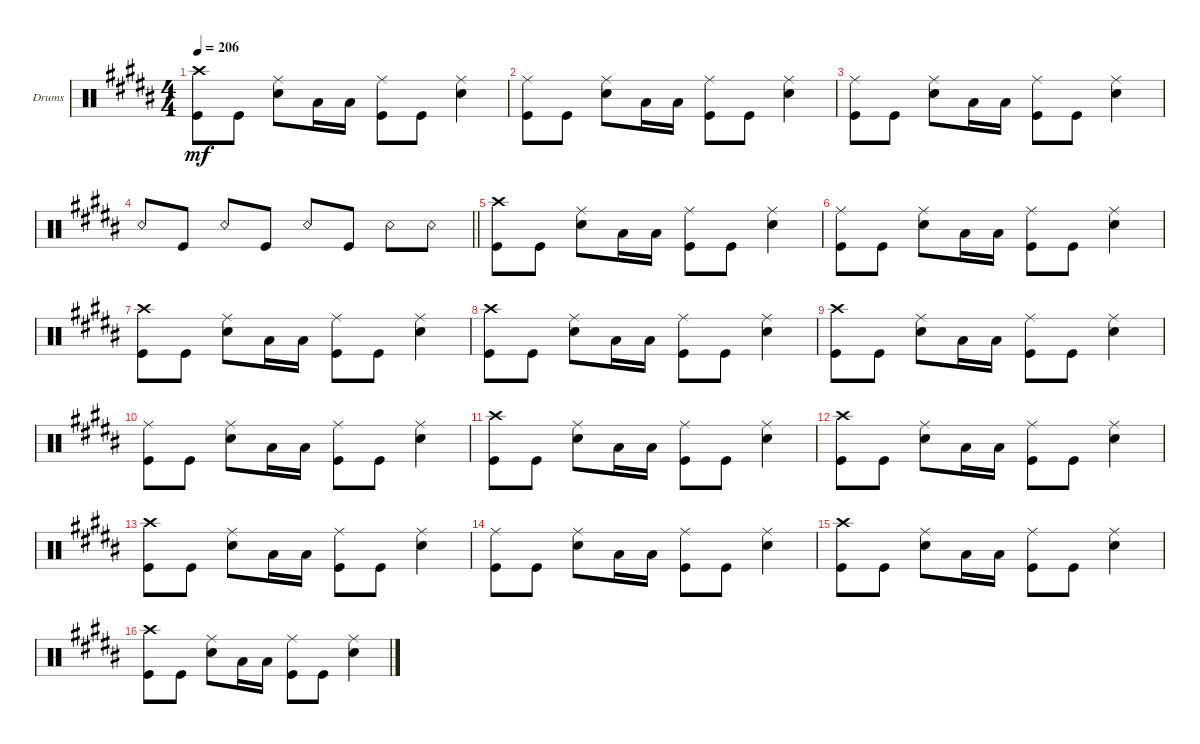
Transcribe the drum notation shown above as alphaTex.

\defaultSystemsLayout 4
\bracketExtendMode groupsimilarinstruments
\firstSystemTrackNameOrientation horizontal
\otherSystemsTrackNameOrientation horizontal
\track ("Drums" "Drums") {instrument percussion}
\staff {score}
\articulation defaults
\ts (4 4)
\tempo 206
\clef neutral
\ks b
("Kick (hit)" "Crash high (hit)").8{dy mf} "Kick (hit)".8 ("Snare (hit) 2" "Ride (middle)").8 "Low Tom (hit)".16 "Low Tom (hit)".16 ("Kick (hit)" "Ride (middle)").8 "Kick (hit)".8 ("Snare (hit) 2" "Ride (middle)").4 |
("Kick (hit)" "Ride (middle)").8 "Kick (hit)".8 ("Snare (hit) 2" "Ride (middle)").8 "Low Tom (hit)".16 "Low Tom (hit)".16 ("Kick (hit)" "Ride (middle)").8 "Kick (hit)".8 ("Snare (hit) 2" "Ride (middle)").4 |
("Kick (hit)" "Ride (middle)").8 "Kick (hit)".8 ("Snare (hit) 2" "Ride (middle)").8 "Low Tom (hit)".16 "Low Tom (hit)".16 ("Kick (hit)" "Ride (middle)").8 "Kick (hit)".8 ("Snare (hit) 2" "Ride (middle)").4 |
\barLineRight lightlight "Snare (rim shot)".8 "Kick (hit)".8 "Snare (rim shot)".8 "Kick (hit)".8 "Snare (rim shot)".8 "Kick (hit)".8 "Snare (rim shot)".8 "Snare (rim shot)".8
|
("Kick (hit)" "Crash high (hit)").8 "Kick (hit)".8 ("Snare (hit) 2" "Ride (middle)").8 "Low Tom (hit)".16 "Low Tom (hit)".16 ("Kick (hit)" "Ride (middle)").8 "Kick (hit)".8 ("Snare (hit) 2" "Ride (middle)").4 |
("Kick (hit)" "Ride (middle)").8 "Kick (hit)".8 ("Snare (hit) 2" "Ride (middle)").8 "Low Tom (hit)".16 "Low Tom (hit)".16 ("Kick (hit)" "Ride (middle)").8 "Kick (hit)".8 ("Snare (hit) 2" "Ride (middle)").4 |
("Kick (hit)" "Crash high (hit)").8 "Kick (hit)".8 ("Snare (hit) 2" "Ride (middle)").8 "Low Tom (hit)".16 "Low Tom (hit)".16 ("Kick (hit)" "Ride (middle)").8 "Kick (hit)".8 ("Snare (hit) 2" "Ride (middle)").4 |
("Kick (hit)" "Crash high (hit)").8 "Kick (hit)".8 ("Snare (hit) 2" "Ride (middle)").8 "Low Tom (hit)".16 "Low Tom (hit)".16 ("Kick (hit)" "Ride (middle)").8 "Kick (hit)".8 ("Snare (hit) 2" "Ride (middle)").4 |
("Kick (hit)" "Crash high (hit)").8 "Kick (hit)".8 ("Snare (hit) 2" "Ride (middle)").8 "Low Tom (hit)".16 "Low Tom (hit)".16 ("Kick (hit)" "Ride (middle)").8 "Kick (hit)".8 ("Snare (hit) 2" "Ride (middle)").4 |
("Kick (hit)" "Ride (middle)").8 "Kick (hit)".8 ("Snare (hit) 2" "Ride (middle)").8 "Low Tom (hit)".16 "Low Tom (hit)".16 ("Kick (hit)" "Ride (middle)").8 "Kick (hit)".8 ("Snare (hit) 2" "Ride (middle)").4 |
("Kick (hit)" "Crash high (hit)").8 "Kick (hit)".8 ("Snare (hit) 2" "Ride (middle)").8 "Low Tom (hit)".16 "Low Tom (hit)".16 ("Kick (hit)" "Ride (middle)").8 "Kick (hit)".8 ("Snare (hit) 2" "Ride (middle)").4 |
("Kick (hit)" "Crash high (hit)").8 "Kick (hit)".8 ("Snare (hit) 2" "Ride (middle)").8 "Low Tom (hit)".16 "Low Tom (hit)".16 ("Kick (hit)" "Ride (middle)").8 "Kick (hit)".8 ("Snare (hit) 2" "Ride (middle)").4 |
("Kick (hit)" "Crash high (hit)").8 "Kick (hit)".8 ("Snare (hit) 2" "Ride (middle)").8 "Low Tom (hit)".16 "Low Tom (hit)".16 ("Kick (hit)" "Ride (middle)").8 "Kick (hit)".8 ("Snare (hit) 2" "Ride (middle)").4 |
("Kick (hit)" "Ride (middle)").8 "Kick (hit)".8 ("Snare (hit) 2" "Ride (middle)").8 "Low Tom (hit)".16 "Low Tom (hit)".16 ("Kick (hit)" "Ride (middle)").8 "Kick (hit)".8 ("Snare (hit) 2" "Ride (middle)").4 |
("Kick (hit)" "Crash high (hit)").8 "Kick (hit)".8 ("Snare (hit) 2" "Ride (middle)").8 "Low Tom (hit)".16 "Low Tom (hit)".16 ("Kick (hit)" "Ride (middle)").8 "Kick (hit)".8 ("Snare (hit) 2" "Ride (middle)").4 |
("Kick (hit)" "Crash high (hit)").8 "Kick (hit)".8 ("Snare (hit) 2" "Ride (middle)").8 "Low Tom (hit)".16 "Low Tom (hit)".16 ("Kick (hit)" "Ride (middle)").8 "Kick (hit)".8 ("Snare (hit) 2" "Ride (middle)").4
